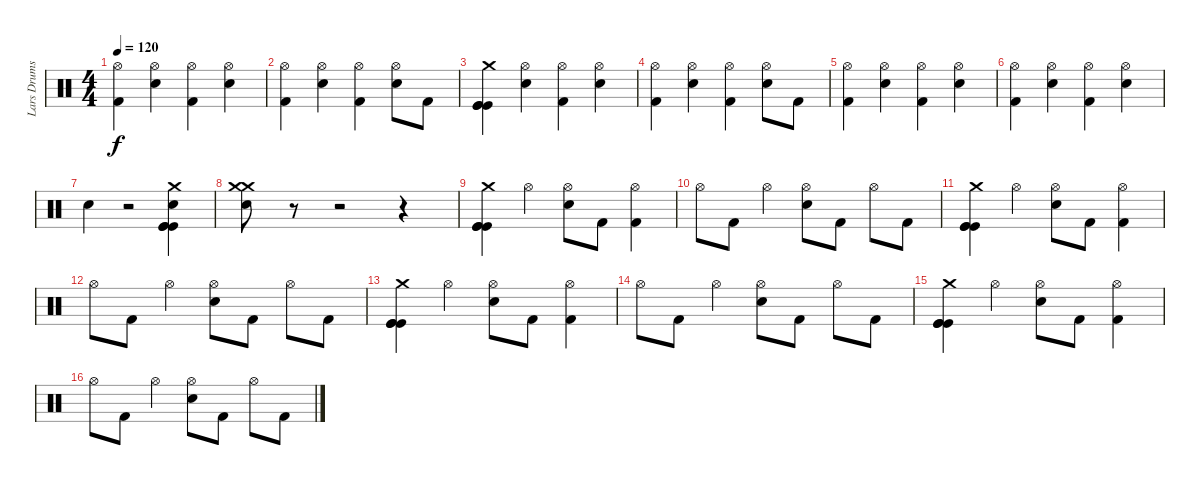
\track ("Lars Drums" "Lars Drums") {instrument percussion}
\staff {score}
\articulation defaults
\ts (4 4)
\tempo 120
\clef neutral
\ks c
("Hi-Hat (open)" "Kick (hit) 2").4{dy f} ("Hi-Hat (open)" "Electric Snare (hit)").4 ("Hi-Hat (open)" "Kick (hit) 2").4 ("Hi-Hat (open)" "Electric Snare (hit)").4 |
("Hi-Hat (open)" "Kick (hit) 2").4 ("Hi-Hat (open)" "Electric Snare (hit)").4 ("Hi-Hat (open)" "Kick (hit) 2").4 ("Hi-Hat (open)" "Electric Snare (hit)").8 "Kick (hit) 2".8 |
("Kick (hit)" "Kick (hit)" "Kick (hit)" "Crash medium (hit)").4 ("Hi-Hat (open)" "Electric Snare (hit)").4 ("Hi-Hat (open)" "Kick (hit) 2").4 ("Hi-Hat (open)" "Electric Snare (hit)").4 |
("Hi-Hat (open)" "Kick (hit) 2").4 ("Hi-Hat (open)" "Electric Snare (hit)").4 ("Hi-Hat (open)" "Kick (hit) 2").4 ("Hi-Hat (open)" "Electric Snare (hit)").8 "Kick (hit) 2".8 |
("Hi-Hat (open)" "Kick (hit) 2").4 ("Hi-Hat (open)" "Electric Snare (hit)").4 ("Hi-Hat (open)" "Kick (hit) 2").4 ("Hi-Hat (open)" "Electric Snare (hit)").4 |
("Hi-Hat (open)" "Kick (hit) 2").4 ("Hi-Hat (open)" "Electric Snare (hit)").4 ("Hi-Hat (open)" "Kick (hit) 2").4 ("Hi-Hat (open)" "Electric Snare (hit)").4 |
"Electric Snare (hit)".4 r.2 ("Electric Snare (hit)" "Kick (hit)" "Kick (hit)" "Kick (hit)" "Crash medium (hit)").4 |
("Electric Snare (hit)" "Crash medium (hit)" "Crash medium (hit)").8 r.8 r.2 r.4 |
("Kick (hit)" "Kick (hit)" "Kick (hit)" "Crash medium (hit)").4 "Hi-Hat (open)".4 ("Hi-Hat (open)" "Electric Snare (hit)").8 "Kick (hit) 2".8 ("Hi-Hat (open)" "Kick (hit) 2").4 |
"Hi-Hat (open)".8 "Kick (hit) 2".8 "Hi-Hat (open)".4 ("Hi-Hat (open)" "Electric Snare (hit)").8 "Kick (hit) 2".8 "Hi-Hat (open)".8 "Kick (hit) 2".8 |
("Kick (hit)" "Kick (hit)" "Kick (hit)" "Crash medium (hit)").4 "Hi-Hat (open)".4 ("Hi-Hat (open)" "Electric Snare (hit)").8 "Kick (hit) 2".8 ("Hi-Hat (open)" "Kick (hit) 2").4 |
"Hi-Hat (open)".8 "Kick (hit) 2".8 "Hi-Hat (open)".4 ("Hi-Hat (open)" "Electric Snare (hit)").8 "Kick (hit) 2".8 "Hi-Hat (open)".8 "Kick (hit) 2".8 |
("Kick (hit)" "Kick (hit)" "Kick (hit)" "Crash medium (hit)").4 "Hi-Hat (open)".4 ("Hi-Hat (open)" "Electric Snare (hit)").8 "Kick (hit) 2".8 ("Hi-Hat (open)" "Kick (hit) 2").4 |
"Hi-Hat (open)".8 "Kick (hit) 2".8 "Hi-Hat (open)".4 ("Hi-Hat (open)" "Electric Snare (hit)").8 "Kick (hit) 2".8 "Hi-Hat (open)".8 "Kick (hit) 2".8 |
("Kick (hit)" "Kick (hit)" "Kick (hit)" "Crash medium (hit)").4 "Hi-Hat (open)".4 ("Hi-Hat (open)" "Electric Snare (hit)").8 "Kick (hit) 2".8 ("Hi-Hat (open)" "Kick (hit) 2").4 |
"Hi-Hat (open)".8 "Kick (hit) 2".8 "Hi-Hat (open)".4 ("Hi-Hat (open)" "Electric Snare (hit)").8 "Kick (hit) 2".8 "Hi-Hat (open)".8 "Kick (hit) 2".8
